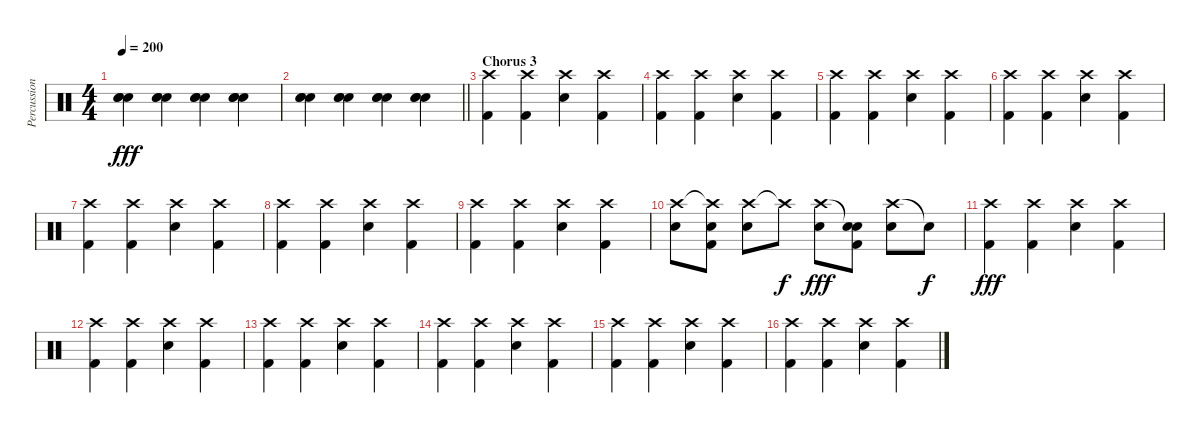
\track ("Percussions" "Percussion") {instrument percussion}
\staff {score}
\articulation defaults
\ts (4 4)
\tempo 200
\clef neutral
\ks c
("Electric Snare (hit)" "Electric Snare (hit)" "Electric Snare (hit)").4{dy fff} ("Electric Snare (hit)" "Electric Snare (hit)" "Electric Snare (hit)").4 ("Electric Snare (hit)" "Electric Snare (hit)" "Electric Snare (hit)").4 ("Electric Snare (hit)" "Electric Snare (hit)" "Electric Snare (hit)").4 |
\barLineRight lightlight
("Electric Snare (hit)" "Electric Snare (hit)" "Electric Snare (hit)").4 ("Electric Snare (hit)" "Electric Snare (hit)" "Electric Snare (hit)").4 ("Electric Snare (hit)" "Electric Snare (hit)" "Electric Snare (hit)").4 ("Electric Snare (hit)" "Electric Snare (hit)" "Electric Snare (hit)").4 |
\section ("" "Chorus 3")
("Crash high (hit)" "Kick (hit) 2").4 ("Crash high (hit)" "Kick (hit) 2").4 ("Crash high (hit)" "Electric Snare (hit)").4 ("Crash high (hit)" "Kick (hit) 2").4 |
("Crash high (hit)" "Kick (hit) 2").4 ("Crash high (hit)" "Kick (hit) 2").4 ("Crash high (hit)" "Electric Snare (hit)").4 ("Crash high (hit)" "Kick (hit) 2").4 |
("Crash high (hit)" "Kick (hit) 2").4 ("Crash high (hit)" "Kick (hit) 2").4 ("Crash high (hit)" "Electric Snare (hit)").4 ("Crash high (hit)" "Kick (hit) 2").4 |
("Crash high (hit)" "Kick (hit) 2").4 ("Crash high (hit)" "Kick (hit) 2").4 ("Crash high (hit)" "Electric Snare (hit)").4 ("Crash high (hit)" "Kick (hit) 2").4 |
("Crash high (hit)" "Kick (hit) 2").4 ("Crash high (hit)" "Kick (hit) 2").4 ("Crash high (hit)" "Electric Snare (hit)").4 ("Crash high (hit)" "Kick (hit) 2").4 |
("Crash high (hit)" "Kick (hit) 2").4 ("Crash high (hit)" "Kick (hit) 2").4 ("Crash high (hit)" "Electric Snare (hit)").4 ("Crash high (hit)" "Kick (hit) 2").4 |
("Crash high (hit)" "Kick (hit) 2").4 ("Crash high (hit)" "Kick (hit) 2").4 ("Crash high (hit)" "Electric Snare (hit)").4 ("Crash high (hit)" "Kick (hit) 2").4 |
("Crash high (hit)" "Electric Snare (hit)").8 ("Crash high (hit)"{t} "Electric Snare (hit)" "Kick (hit) 2").8 ("Crash high (hit)" "Electric Snare (hit)").8 "Crash high (hit)"{t}.8{dy f} ("Crash high (hit)" "Electric Snare (hit)").8{dy fff} ("Snare (hit)"{t} "Electric Snare (hit)" "Kick (hit) 2").8 ("Crash high (hit)" "Electric Snare (hit)").8 "Snare (hit)"{t}.8{dy f} |
("Crash high (hit)" "Kick (hit) 2").4{dy fff} ("Crash high (hit)" "Kick (hit) 2").4 ("Crash high (hit)" "Electric Snare (hit)").4 ("Crash high (hit)" "Kick (hit) 2").4 |
("Crash high (hit)" "Kick (hit) 2").4 ("Crash high (hit)" "Kick (hit) 2").4 ("Crash high (hit)" "Electric Snare (hit)").4 ("Crash high (hit)" "Kick (hit) 2").4 |
("Crash high (hit)" "Kick (hit) 2").4 ("Crash high (hit)" "Kick (hit) 2").4 ("Crash high (hit)" "Electric Snare (hit)").4 ("Crash high (hit)" "Kick (hit) 2").4 |
("Crash high (hit)" "Kick (hit) 2").4 ("Crash high (hit)" "Kick (hit) 2").4 ("Crash high (hit)" "Electric Snare (hit)").4 ("Crash high (hit)" "Kick (hit) 2").4 |
("Crash high (hit)" "Kick (hit) 2").4 ("Crash high (hit)" "Kick (hit) 2").4 ("Crash high (hit)" "Electric Snare (hit)").4 ("Crash high (hit)" "Kick (hit) 2").4 |
("Crash high (hit)" "Kick (hit) 2").4 ("Crash high (hit)" "Kick (hit) 2").4 ("Crash high (hit)" "Electric Snare (hit)").4 ("Crash high (hit)" "Kick (hit) 2").4
